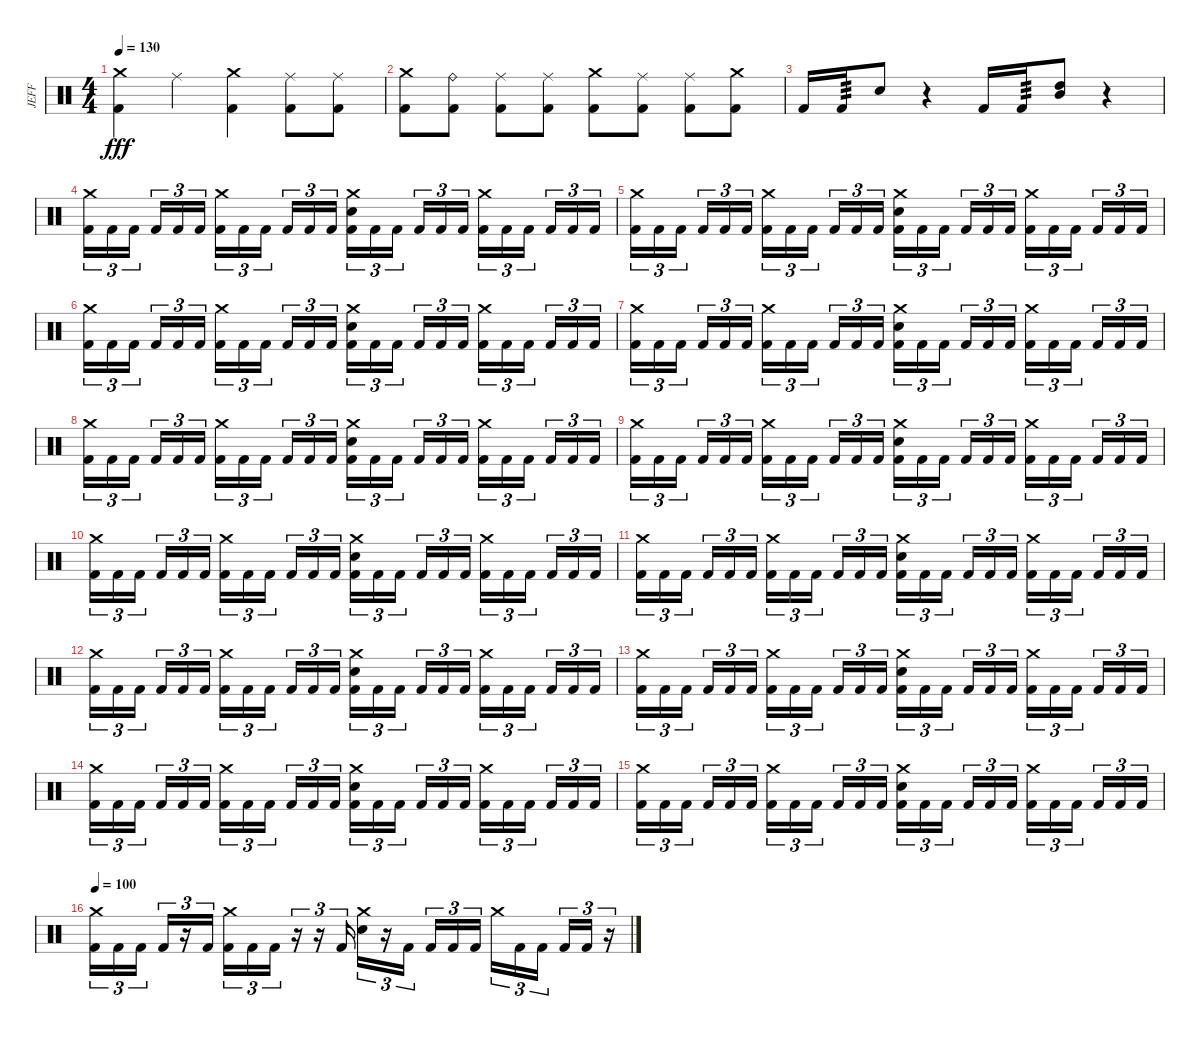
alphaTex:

\track ("JEFF" "JEFF") {instrument percussion}
\staff {score}
\articulation defaults
\ts (4 4)
\tempo 130
\clef neutral
\ks c
("Crash medium (hit)" "Kick (hit) 2").4{dy fff} "Ride (middle)".4 ("Crash medium (hit)" "Kick (hit) 2").4 ("Ride (middle)" "Kick (hit) 2").8 ("Ride (middle)" "Kick (hit) 2").8 |
("Crash medium (hit)" "Kick (hit) 2").8 ("Ride (bell)" "Kick (hit) 2").8 ("Ride (middle)" "Kick (hit) 2").8 ("Ride (middle)" "Kick (hit) 2").8 ("Crash medium (hit)" "Kick (hit) 2").8 ("Ride (middle)" "Kick (hit) 2").8 ("Ride (middle)" "Kick (hit) 2").8 ("Crash medium (hit)" "Kick (hit) 2").8 |
"Kick (hit) 2".16 "Kick (hit) 2".16{tp 3} "Electric Snare (hit)".8 r.4 "Kick (hit) 2".16 "Kick (hit) 2".16{tp 3} ("Mid Tom (hit)" "High Tom (hit)").8 r.4 |
("Crash medium (hit)" "Kick (hit) 2").16{tu (3 2)} "Kick (hit) 2".16{tu (3 2)} "Kick (hit) 2".16{tu (3 2) beam splitsecondary} "Kick (hit) 2".16{tu (3 2)} "Kick (hit) 2".16{tu (3 2)} "Kick (hit) 2".16{tu (3 2)} ("Crash medium (hit)" "Kick (hit) 2").16{tu (3 2)} "Kick (hit) 2".16{tu (3 2)} "Kick (hit) 2".16{tu (3 2) beam splitsecondary} "Kick (hit) 2".16{tu (3 2)} "Kick (hit) 2".16{tu (3 2)} "Kick (hit) 2".16{tu (3 2)} ("Crash medium (hit)" "Electric Snare (hit)" "Kick (hit) 2").16{tu (3 2)} "Kick (hit) 2".16{tu (3 2)} "Kick (hit) 2".16{tu (3 2) beam splitsecondary} "Kick (hit) 2".16{tu (3 2)} "Kick (hit) 2".16{tu (3 2)} "Kick (hit) 2".16{tu (3 2)} ("Crash medium (hit)" "Kick (hit) 2").16{tu (3 2)} "Kick (hit) 2".16{tu (3 2)} "Kick (hit) 2".16{tu (3 2) beam splitsecondary} "Kick (hit) 2".16{tu (3 2)} "Kick (hit) 2".16{tu (3 2)} "Kick (hit) 2".16{tu (3 2)} |
("Crash medium (hit)" "Kick (hit) 2").16{tu (3 2)} "Kick (hit) 2".16{tu (3 2)} "Kick (hit) 2".16{tu (3 2) beam splitsecondary} "Kick (hit) 2".16{tu (3 2)} "Kick (hit) 2".16{tu (3 2)} "Kick (hit) 2".16{tu (3 2)} ("Crash medium (hit)" "Kick (hit) 2").16{tu (3 2)} "Kick (hit) 2".16{tu (3 2)} "Kick (hit) 2".16{tu (3 2) beam splitsecondary} "Kick (hit) 2".16{tu (3 2)} "Kick (hit) 2".16{tu (3 2)} "Kick (hit) 2".16{tu (3 2)} ("Crash medium (hit)" "Electric Snare (hit)" "Kick (hit) 2").16{tu (3 2)} "Kick (hit) 2".16{tu (3 2)} "Kick (hit) 2".16{tu (3 2) beam splitsecondary} "Kick (hit) 2".16{tu (3 2)} "Kick (hit) 2".16{tu (3 2)} "Kick (hit) 2".16{tu (3 2)} ("Crash medium (hit)" "Kick (hit) 2").16{tu (3 2)} "Kick (hit) 2".16{tu (3 2)} "Kick (hit) 2".16{tu (3 2) beam splitsecondary} "Kick (hit) 2".16{tu (3 2)} "Kick (hit) 2".16{tu (3 2)} "Kick (hit) 2".16{tu (3 2)} |
("Crash medium (hit)" "Kick (hit) 2").16{tu (3 2)} "Kick (hit) 2".16{tu (3 2)} "Kick (hit) 2".16{tu (3 2) beam splitsecondary} "Kick (hit) 2".16{tu (3 2)} "Kick (hit) 2".16{tu (3 2)} "Kick (hit) 2".16{tu (3 2)} ("Crash medium (hit)" "Kick (hit) 2").16{tu (3 2)} "Kick (hit) 2".16{tu (3 2)} "Kick (hit) 2".16{tu (3 2) beam splitsecondary} "Kick (hit) 2".16{tu (3 2)} "Kick (hit) 2".16{tu (3 2)} "Kick (hit) 2".16{tu (3 2)} ("Crash medium (hit)" "Electric Snare (hit)" "Kick (hit) 2").16{tu (3 2)} "Kick (hit) 2".16{tu (3 2)} "Kick (hit) 2".16{tu (3 2) beam splitsecondary} "Kick (hit) 2".16{tu (3 2)} "Kick (hit) 2".16{tu (3 2)} "Kick (hit) 2".16{tu (3 2)} ("Crash medium (hit)" "Kick (hit) 2").16{tu (3 2)} "Kick (hit) 2".16{tu (3 2)} "Kick (hit) 2".16{tu (3 2) beam splitsecondary} "Kick (hit) 2".16{tu (3 2)} "Kick (hit) 2".16{tu (3 2)} "Kick (hit) 2".16{tu (3 2)} |
("Crash medium (hit)" "Kick (hit) 2").16{tu (3 2)} "Kick (hit) 2".16{tu (3 2)} "Kick (hit) 2".16{tu (3 2) beam splitsecondary} "Kick (hit) 2".16{tu (3 2)} "Kick (hit) 2".16{tu (3 2)} "Kick (hit) 2".16{tu (3 2)} ("Crash medium (hit)" "Kick (hit) 2").16{tu (3 2)} "Kick (hit) 2".16{tu (3 2)} "Kick (hit) 2".16{tu (3 2) beam splitsecondary} "Kick (hit) 2".16{tu (3 2)} "Kick (hit) 2".16{tu (3 2)} "Kick (hit) 2".16{tu (3 2)} ("Crash medium (hit)" "Electric Snare (hit)" "Kick (hit) 2").16{tu (3 2)} "Kick (hit) 2".16{tu (3 2)} "Kick (hit) 2".16{tu (3 2) beam splitsecondary} "Kick (hit) 2".16{tu (3 2)} "Kick (hit) 2".16{tu (3 2)} "Kick (hit) 2".16{tu (3 2)} ("Crash medium (hit)" "Kick (hit) 2").16{tu (3 2)} "Kick (hit) 2".16{tu (3 2)} "Kick (hit) 2".16{tu (3 2) beam splitsecondary} "Kick (hit) 2".16{tu (3 2)} "Kick (hit) 2".16{tu (3 2)} "Kick (hit) 2".16{tu (3 2)} |
("Crash medium (hit)" "Kick (hit) 2").16{tu (3 2)} "Kick (hit) 2".16{tu (3 2)} "Kick (hit) 2".16{tu (3 2) beam splitsecondary} "Kick (hit) 2".16{tu (3 2)} "Kick (hit) 2".16{tu (3 2)} "Kick (hit) 2".16{tu (3 2)} ("Crash medium (hit)" "Kick (hit) 2").16{tu (3 2)} "Kick (hit) 2".16{tu (3 2)} "Kick (hit) 2".16{tu (3 2) beam splitsecondary} "Kick (hit) 2".16{tu (3 2)} "Kick (hit) 2".16{tu (3 2)} "Kick (hit) 2".16{tu (3 2)} ("Crash medium (hit)" "Electric Snare (hit)" "Kick (hit) 2").16{tu (3 2)} "Kick (hit) 2".16{tu (3 2)} "Kick (hit) 2".16{tu (3 2) beam splitsecondary} "Kick (hit) 2".16{tu (3 2)} "Kick (hit) 2".16{tu (3 2)} "Kick (hit) 2".16{tu (3 2)} ("Crash medium (hit)" "Kick (hit) 2").16{tu (3 2)} "Kick (hit) 2".16{tu (3 2)} "Kick (hit) 2".16{tu (3 2) beam splitsecondary} "Kick (hit) 2".16{tu (3 2)} "Kick (hit) 2".16{tu (3 2)} "Kick (hit) 2".16{tu (3 2)} |
("Crash medium (hit)" "Kick (hit) 2").16{tu (3 2)} "Kick (hit) 2".16{tu (3 2)} "Kick (hit) 2".16{tu (3 2) beam splitsecondary} "Kick (hit) 2".16{tu (3 2)} "Kick (hit) 2".16{tu (3 2)} "Kick (hit) 2".16{tu (3 2)} ("Crash medium (hit)" "Kick (hit) 2").16{tu (3 2)} "Kick (hit) 2".16{tu (3 2)} "Kick (hit) 2".16{tu (3 2) beam splitsecondary} "Kick (hit) 2".16{tu (3 2)} "Kick (hit) 2".16{tu (3 2)} "Kick (hit) 2".16{tu (3 2)} ("Crash medium (hit)" "Electric Snare (hit)" "Kick (hit) 2").16{tu (3 2)} "Kick (hit) 2".16{tu (3 2)} "Kick (hit) 2".16{tu (3 2) beam splitsecondary} "Kick (hit) 2".16{tu (3 2)} "Kick (hit) 2".16{tu (3 2)} "Kick (hit) 2".16{tu (3 2)} ("Crash medium (hit)" "Kick (hit) 2").16{tu (3 2)} "Kick (hit) 2".16{tu (3 2)} "Kick (hit) 2".16{tu (3 2) beam splitsecondary} "Kick (hit) 2".16{tu (3 2)} "Kick (hit) 2".16{tu (3 2)} "Kick (hit) 2".16{tu (3 2)} |
("Crash medium (hit)" "Kick (hit) 2").16{tu (3 2)} "Kick (hit) 2".16{tu (3 2)} "Kick (hit) 2".16{tu (3 2) beam splitsecondary} "Kick (hit) 2".16{tu (3 2)} "Kick (hit) 2".16{tu (3 2)} "Kick (hit) 2".16{tu (3 2)} ("Crash medium (hit)" "Kick (hit) 2").16{tu (3 2)} "Kick (hit) 2".16{tu (3 2)} "Kick (hit) 2".16{tu (3 2) beam splitsecondary} "Kick (hit) 2".16{tu (3 2)} "Kick (hit) 2".16{tu (3 2)} "Kick (hit) 2".16{tu (3 2)} ("Crash medium (hit)" "Electric Snare (hit)" "Kick (hit) 2").16{tu (3 2)} "Kick (hit) 2".16{tu (3 2)} "Kick (hit) 2".16{tu (3 2) beam splitsecondary} "Kick (hit) 2".16{tu (3 2)} "Kick (hit) 2".16{tu (3 2)} "Kick (hit) 2".16{tu (3 2)} ("Crash medium (hit)" "Kick (hit) 2").16{tu (3 2)} "Kick (hit) 2".16{tu (3 2)} "Kick (hit) 2".16{tu (3 2) beam splitsecondary} "Kick (hit) 2".16{tu (3 2)} "Kick (hit) 2".16{tu (3 2)} "Kick (hit) 2".16{tu (3 2)} |
("Crash medium (hit)" "Kick (hit) 2").16{tu (3 2)} "Kick (hit) 2".16{tu (3 2)} "Kick (hit) 2".16{tu (3 2) beam splitsecondary} "Kick (hit) 2".16{tu (3 2)} "Kick (hit) 2".16{tu (3 2)} "Kick (hit) 2".16{tu (3 2)} ("Crash medium (hit)" "Kick (hit) 2").16{tu (3 2)} "Kick (hit) 2".16{tu (3 2)} "Kick (hit) 2".16{tu (3 2) beam splitsecondary} "Kick (hit) 2".16{tu (3 2)} "Kick (hit) 2".16{tu (3 2)} "Kick (hit) 2".16{tu (3 2)} ("Crash medium (hit)" "Electric Snare (hit)" "Kick (hit) 2").16{tu (3 2)} "Kick (hit) 2".16{tu (3 2)} "Kick (hit) 2".16{tu (3 2) beam splitsecondary} "Kick (hit) 2".16{tu (3 2)} "Kick (hit) 2".16{tu (3 2)} "Kick (hit) 2".16{tu (3 2)} ("Crash medium (hit)" "Kick (hit) 2").16{tu (3 2)} "Kick (hit) 2".16{tu (3 2)} "Kick (hit) 2".16{tu (3 2) beam splitsecondary} "Kick (hit) 2".16{tu (3 2)} "Kick (hit) 2".16{tu (3 2)} "Kick (hit) 2".16{tu (3 2)} |
("Crash medium (hit)" "Kick (hit) 2").16{tu (3 2)} "Kick (hit) 2".16{tu (3 2)} "Kick (hit) 2".16{tu (3 2) beam splitsecondary} "Kick (hit) 2".16{tu (3 2)} "Kick (hit) 2".16{tu (3 2)} "Kick (hit) 2".16{tu (3 2)} ("Crash medium (hit)" "Kick (hit) 2").16{tu (3 2)} "Kick (hit) 2".16{tu (3 2)} "Kick (hit) 2".16{tu (3 2) beam splitsecondary} "Kick (hit) 2".16{tu (3 2)} "Kick (hit) 2".16{tu (3 2)} "Kick (hit) 2".16{tu (3 2)} ("Crash medium (hit)" "Electric Snare (hit)" "Kick (hit) 2").16{tu (3 2)} "Kick (hit) 2".16{tu (3 2)} "Kick (hit) 2".16{tu (3 2) beam splitsecondary} "Kick (hit) 2".16{tu (3 2)} "Kick (hit) 2".16{tu (3 2)} "Kick (hit) 2".16{tu (3 2)} ("Crash medium (hit)" "Kick (hit) 2").16{tu (3 2)} "Kick (hit) 2".16{tu (3 2)} "Kick (hit) 2".16{tu (3 2) beam splitsecondary} "Kick (hit) 2".16{tu (3 2)} "Kick (hit) 2".16{tu (3 2)} "Kick (hit) 2".16{tu (3 2)} |
("Crash medium (hit)" "Kick (hit) 2").16{tu (3 2)} "Kick (hit) 2".16{tu (3 2)} "Kick (hit) 2".16{tu (3 2) beam splitsecondary} "Kick (hit) 2".16{tu (3 2)} "Kick (hit) 2".16{tu (3 2)} "Kick (hit) 2".16{tu (3 2)} ("Crash medium (hit)" "Kick (hit) 2").16{tu (3 2)} "Kick (hit) 2".16{tu (3 2)} "Kick (hit) 2".16{tu (3 2) beam splitsecondary} "Kick (hit) 2".16{tu (3 2)} "Kick (hit) 2".16{tu (3 2)} "Kick (hit) 2".16{tu (3 2)} ("Crash medium (hit)" "Electric Snare (hit)" "Kick (hit) 2").16{tu (3 2)} "Kick (hit) 2".16{tu (3 2)} "Kick (hit) 2".16{tu (3 2) beam splitsecondary} "Kick (hit) 2".16{tu (3 2)} "Kick (hit) 2".16{tu (3 2)} "Kick (hit) 2".16{tu (3 2)} ("Crash medium (hit)" "Kick (hit) 2").16{tu (3 2)} "Kick (hit) 2".16{tu (3 2)} "Kick (hit) 2".16{tu (3 2) beam splitsecondary} "Kick (hit) 2".16{tu (3 2)} "Kick (hit) 2".16{tu (3 2)} "Kick (hit) 2".16{tu (3 2)} |
("Crash medium (hit)" "Kick (hit) 2").16{tu (3 2)} "Kick (hit) 2".16{tu (3 2)} "Kick (hit) 2".16{tu (3 2) beam splitsecondary} "Kick (hit) 2".16{tu (3 2)} "Kick (hit) 2".16{tu (3 2)} "Kick (hit) 2".16{tu (3 2)} ("Crash medium (hit)" "Kick (hit) 2").16{tu (3 2)} "Kick (hit) 2".16{tu (3 2)} "Kick (hit) 2".16{tu (3 2) beam splitsecondary} "Kick (hit) 2".16{tu (3 2)} "Kick (hit) 2".16{tu (3 2)} "Kick (hit) 2".16{tu (3 2)} ("Crash medium (hit)" "Electric Snare (hit)" "Kick (hit) 2").16{tu (3 2)} "Kick (hit) 2".16{tu (3 2)} "Kick (hit) 2".16{tu (3 2) beam splitsecondary} "Kick (hit) 2".16{tu (3 2)} "Kick (hit) 2".16{tu (3 2)} "Kick (hit) 2".16{tu (3 2)} ("Crash medium (hit)" "Kick (hit) 2").16{tu (3 2)} "Kick (hit) 2".16{tu (3 2)} "Kick (hit) 2".16{tu (3 2) beam splitsecondary} "Kick (hit) 2".16{tu (3 2)} "Kick (hit) 2".16{tu (3 2)} "Kick (hit) 2".16{tu (3 2)} |
("Crash medium (hit)" "Kick (hit) 2").16{tu (3 2)} "Kick (hit) 2".16{tu (3 2)} "Kick (hit) 2".16{tu (3 2) beam splitsecondary} "Kick (hit) 2".16{tu (3 2)} "Kick (hit) 2".16{tu (3 2)} "Kick (hit) 2".16{tu (3 2)} ("Crash medium (hit)" "Kick (hit) 2").16{tu (3 2)} "Kick (hit) 2".16{tu (3 2)} "Kick (hit) 2".16{tu (3 2) beam splitsecondary} "Kick (hit) 2".16{tu (3 2)} "Kick (hit) 2".16{tu (3 2)} "Kick (hit) 2".16{tu (3 2)} ("Crash medium (hit)" "Electric Snare (hit)" "Kick (hit) 2").16{tu (3 2)} "Kick (hit) 2".16{tu (3 2)} "Kick (hit) 2".16{tu (3 2) beam splitsecondary} "Kick (hit) 2".16{tu (3 2)} "Kick (hit) 2".16{tu (3 2)} "Kick (hit) 2".16{tu (3 2)} ("Crash medium (hit)" "Kick (hit) 2").16{tu (3 2)} "Kick (hit) 2".16{tu (3 2)} "Kick (hit) 2".16{tu (3 2) beam splitsecondary} "Kick (hit) 2".16{tu (3 2)} "Kick (hit) 2".16{tu (3 2)} "Kick (hit) 2".16{tu (3 2)} |
\tempo 100
("Crash medium (hit)" "Kick (hit) 2").16{tu (3 2)} "Kick (hit) 2".16{tu (3 2)} "Kick (hit) 2".16{tu (3 2) beam splitsecondary} "Kick (hit) 2".16{tu (3 2)} r.16{tu (3 2)} "Kick (hit) 2".16{tu (3 2)} ("Crash medium (hit)" "Kick (hit) 2").16{tu (3 2)} "Kick (hit) 2".16{tu (3 2)} "Kick (hit) 2".16{tu (3 2)} r.16{tu (3 2)} r.16{tu (3 2)} "Kick (hit) 2".16{tu (3 2)} ("Crash medium (hit)" "Electric Snare (hit)").16{tu (3 2)} r.16{tu (3 2)} "Kick (hit) 2".16{tu (3 2) beam splitsecondary} "Kick (hit) 2".16{tu (3 2)} "Kick (hit) 2".16{tu (3 2)} "Kick (hit) 2".16{tu (3 2)} "Crash medium (hit)".16{tu (3 2)} "Kick (hit) 2".16{tu (3 2)} "Kick (hit) 2".16{tu (3 2) beam splitsecondary} "Kick (hit) 2".16{tu (3 2)} "Kick (hit) 2".16{tu (3 2)} r.16{tu (3 2)}
